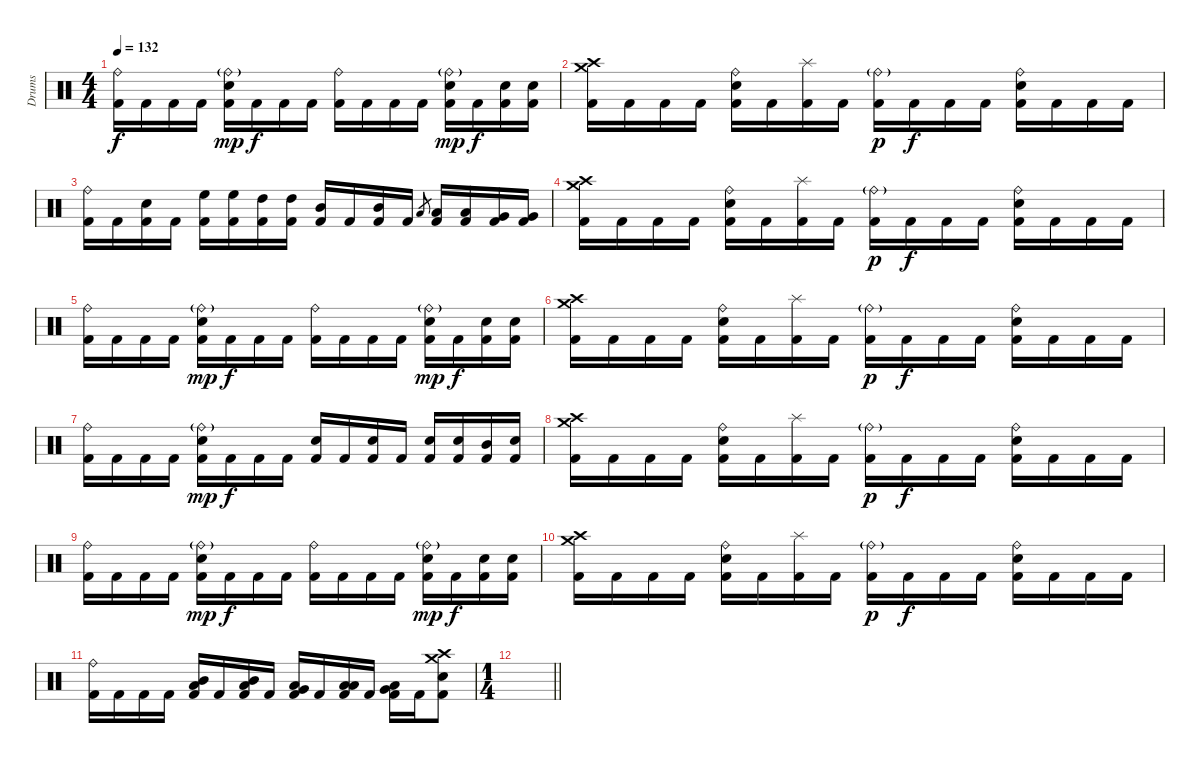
\track ("Drums" "Drums") {instrument percussion}
\staff {score}
\articulation defaults
\ts (4 4)
\tempo 132
\clef neutral
\ks c
("Ride (bell)" "Kick (hit) 2").16{dy f} "Kick (hit) 2".16 "Kick (hit) 2".16 "Kick (hit) 2".16 ("Ride (bell)"{g} "Electric Snare (hit)" "Kick (hit) 2").16{dy mp} "Kick (hit) 2".16{dy f} "Kick (hit) 2".16 "Kick (hit) 2".16 ("Ride (bell)" "Kick (hit) 2").16 "Kick (hit) 2".16 "Kick (hit) 2".16 "Kick (hit) 2".16 ("Ride (bell)"{g} "Electric Snare (hit)" "Kick (hit) 2").16{dy mp} "Kick (hit) 2".16{dy f} ("Electric Snare (hit)" "Kick (hit) 2").16 ("Electric Snare (hit)" "Kick (hit) 2").16 |
("Crash high (hit)" "Crash medium (hit)" "Kick (hit) 2").16 "Kick (hit) 2".16 "Kick (hit) 2".16 "Kick (hit) 2".16 ("Ride (bell)" "Electric Snare (hit)" "Kick (hit) 2").16 "Kick (hit) 2".16 ("Splash (hit)" "Kick (hit) 2").16 "Kick (hit) 2".16 ("Ride (bell)"{g} "Kick (hit) 2").16{dy p} "Kick (hit) 2".16{dy f} "Kick (hit) 2".16 "Kick (hit) 2".16 ("Ride (bell)" "Electric Snare (hit)" "Kick (hit) 2").16 "Kick (hit) 2".16 "Kick (hit) 2".16 "Kick (hit) 2".16 |
("Ride (bell)" "Kick (hit) 2").16 "Kick (hit) 2".16 ("Electric Snare (hit)" "Kick (hit) 2").16 "Kick (hit) 2".16 ("High Floor Tom (hit)" "Kick (hit) 2").16 ("High Floor Tom (hit)" "Kick (hit) 2").16 ("High Tom (hit)" "Kick (hit) 2").16 ("High Tom (hit)" "Kick (hit) 2").16 ("Mid Tom (hit)" "Kick (hit) 2").16 "Kick (hit) 2".16 ("Mid Tom (hit)" "Kick (hit) 2").16 "Kick (hit) 2".16 "Low Tom (hit)".8{gr} ("Low Tom (hit)" "Kick (hit) 2").16 ("Low Tom (hit)" "Kick (hit) 2").16 ("Very Low Tom (hit)" "Kick (hit) 2").16 ("Very Low Tom (hit)" "Kick (hit) 2").16 |
("Crash high (hit)" "Crash medium (hit)" "Kick (hit) 2").16 "Kick (hit) 2".16 "Kick (hit) 2".16 "Kick (hit) 2".16 ("Ride (bell)" "Electric Snare (hit)" "Kick (hit) 2").16 "Kick (hit) 2".16 ("Splash (hit)" "Kick (hit) 2").16 "Kick (hit) 2".16 ("Ride (bell)"{g} "Kick (hit) 2").16{dy p} "Kick (hit) 2".16{dy f} "Kick (hit) 2".16 "Kick (hit) 2".16 ("Ride (bell)" "Electric Snare (hit)" "Kick (hit) 2").16 "Kick (hit) 2".16 "Kick (hit) 2".16 "Kick (hit) 2".16 |
("Ride (bell)" "Kick (hit) 2").16 "Kick (hit) 2".16 "Kick (hit) 2".16 "Kick (hit) 2".16 ("Ride (bell)"{g} "Electric Snare (hit)" "Kick (hit) 2").16{dy mp} "Kick (hit) 2".16{dy f} "Kick (hit) 2".16 "Kick (hit) 2".16 ("Ride (bell)" "Kick (hit) 2").16 "Kick (hit) 2".16 "Kick (hit) 2".16 "Kick (hit) 2".16 ("Ride (bell)"{g} "Electric Snare (hit)" "Kick (hit) 2").16{dy mp} "Kick (hit) 2".16{dy f} ("Electric Snare (hit)" "Kick (hit) 2").16 ("Electric Snare (hit)" "Kick (hit) 2").16 |
("Crash high (hit)" "Crash medium (hit)" "Kick (hit) 2").16 "Kick (hit) 2".16 "Kick (hit) 2".16 "Kick (hit) 2".16 ("Ride (bell)" "Electric Snare (hit)" "Kick (hit) 2").16 "Kick (hit) 2".16 ("Splash (hit)" "Kick (hit) 2").16 "Kick (hit) 2".16 ("Ride (bell)"{g} "Kick (hit) 2").16{dy p} "Kick (hit) 2".16{dy f} "Kick (hit) 2".16 "Kick (hit) 2".16 ("Ride (bell)" "Electric Snare (hit)" "Kick (hit) 2").16 "Kick (hit) 2".16 "Kick (hit) 2".16 "Kick (hit) 2".16 |
("Ride (bell)" "Kick (hit) 2").16 "Kick (hit) 2".16 "Kick (hit) 2".16 "Kick (hit) 2".16 ("Ride (bell)"{g} "Electric Snare (hit)" "Kick (hit) 2").16{dy mp} "Kick (hit) 2".16{dy f} "Kick (hit) 2".16 "Kick (hit) 2".16 ("Electric Snare (hit)" "Kick (hit) 2").16 "Kick (hit) 2".16 ("Electric Snare (hit)" "Kick (hit) 2").16 "Kick (hit) 2".16 ("Electric Snare (hit)" "Kick (hit) 2").16 ("Electric Snare (hit)" "Kick (hit) 2").16 ("Mid Tom (hit)" "Kick (hit) 2").16 ("Electric Snare (hit)" "Kick (hit) 2").16 |
("Crash high (hit)" "Crash medium (hit)" "Kick (hit) 2").16 "Kick (hit) 2".16 "Kick (hit) 2".16 "Kick (hit) 2".16 ("Ride (bell)" "Electric Snare (hit)" "Kick (hit) 2").16 "Kick (hit) 2".16 ("Splash (hit)" "Kick (hit) 2").16 "Kick (hit) 2".16 ("Ride (bell)"{g} "Kick (hit) 2").16{dy p} "Kick (hit) 2".16{dy f} "Kick (hit) 2".16 "Kick (hit) 2".16 ("Ride (bell)" "Electric Snare (hit)" "Kick (hit) 2").16 "Kick (hit) 2".16 "Kick (hit) 2".16 "Kick (hit) 2".16 |
("Ride (bell)" "Kick (hit) 2").16 "Kick (hit) 2".16 "Kick (hit) 2".16 "Kick (hit) 2".16 ("Ride (bell)"{g} "Electric Snare (hit)" "Kick (hit) 2").16{dy mp} "Kick (hit) 2".16{dy f} "Kick (hit) 2".16 "Kick (hit) 2".16 ("Ride (bell)" "Kick (hit) 2").16 "Kick (hit) 2".16 "Kick (hit) 2".16 "Kick (hit) 2".16 ("Ride (bell)"{g} "Electric Snare (hit)" "Kick (hit) 2").16{dy mp} "Kick (hit) 2".16{dy f} ("Electric Snare (hit)" "Kick (hit) 2").16 ("Electric Snare (hit)" "Kick (hit) 2").16 |
("Crash high (hit)" "Crash medium (hit)" "Kick (hit) 2").16 "Kick (hit) 2".16 "Kick (hit) 2".16 "Kick (hit) 2".16 ("Ride (bell)" "Electric Snare (hit)" "Kick (hit) 2").16 "Kick (hit) 2".16 ("Splash (hit)" "Kick (hit) 2").16 "Kick (hit) 2".16 ("Ride (bell)"{g} "Kick (hit) 2").16{dy p} "Kick (hit) 2".16{dy f} "Kick (hit) 2".16 "Kick (hit) 2".16 ("Ride (bell)" "Electric Snare (hit)" "Kick (hit) 2").16 "Kick (hit) 2".16 "Kick (hit) 2".16 "Kick (hit) 2".16 |
("Ride (bell)" "Kick (hit) 2").16 "Kick (hit) 2".16 "Kick (hit) 2".16 "Kick (hit) 2".16 ("Mid Tom (hit)" "Low Tom (hit)" "Kick (hit) 2").16 "Kick (hit) 2".16 ("Mid Tom (hit)" "Low Tom (hit)" "Kick (hit) 2").16 "Kick (hit) 2".16 ("Low Tom (hit)" "Very Low Tom (hit)" "Kick (hit) 2").16 "Kick (hit) 2".16 ("Low Tom (hit)" "Low Floor Tom (hit)" "Kick (hit) 2").16 "Kick (hit) 2".16 ("Very Low Tom (hit)" "Low Floor Tom (hit)" "Kick (hit) 2").16 "Kick (hit) 2".16 ("Crash high (hit)" "Crash medium (hit)" "Electric Snare (hit)" "Kick (hit) 2").8 |
\ts (1 4)
\barLineRight lightlight
